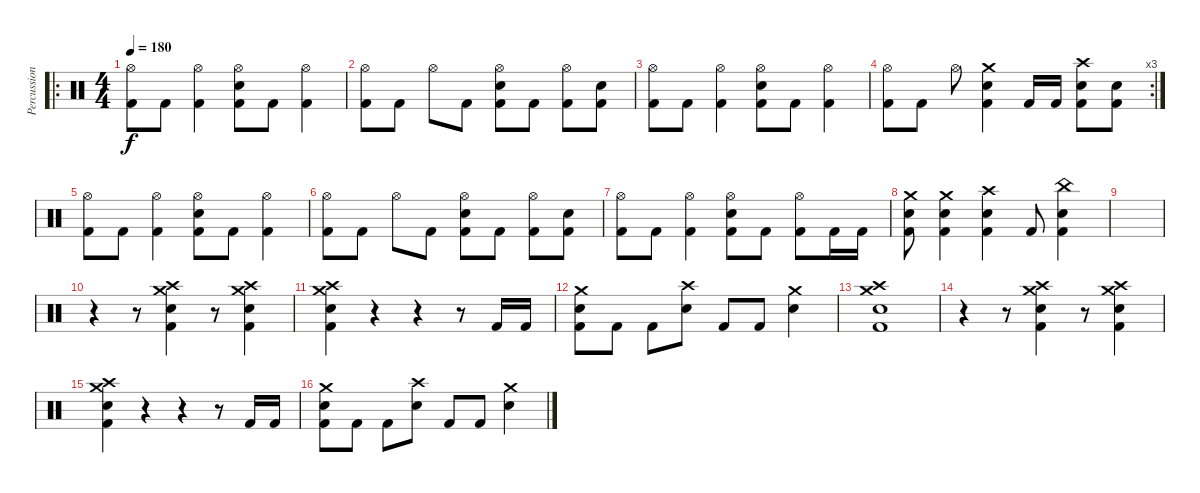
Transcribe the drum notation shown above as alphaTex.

\track ("Percussion" "Percussion") {instrument percussion}
\staff {score}
\articulation defaults
\ro
\ts (4 4)
\tempo 180
\clef neutral
\ks c
("Hi-Hat (open)" "Kick (hit) 2").8{dy f} "Kick (hit) 2".8 ("Hi-Hat (open)" "Kick (hit) 2").4 ("Hi-Hat (open)" "Electric Snare (hit)" "Kick (hit) 2").8 "Kick (hit) 2".8 ("Hi-Hat (open)" "Kick (hit) 2").4 |
("Hi-Hat (open)" "Kick (hit) 2").8 "Kick (hit) 2".8 "Hi-Hat (open)".8 "Kick (hit) 2".8 ("Hi-Hat (open)" "Electric Snare (hit)" "Kick (hit) 2").8 "Kick (hit) 2".8 ("Hi-Hat (open)" "Kick (hit) 2").8 ("Electric Snare (hit)" "Kick (hit) 2").8 |
("Hi-Hat (open)" "Kick (hit) 2").8 "Kick (hit) 2".8 ("Hi-Hat (open)" "Kick (hit) 2").4 ("Hi-Hat (open)" "Electric Snare (hit)" "Kick (hit) 2").8 "Kick (hit) 2".8 ("Hi-Hat (open)" "Kick (hit) 2").4 |
\rc 3
("Hi-Hat (open)" "Kick (hit) 2").8 "Kick (hit) 2".8 "Hi-Hat (open)".8 ("Crash medium (hit)" "Electric Snare (hit)" "Kick (hit) 2").4 "Kick (hit) 2".16 "Kick (hit) 2".16 ("Crash high (hit)" "Electric Snare (hit)" "Kick (hit) 2").8 ("Electric Snare (hit)" "Kick (hit) 2").8 |
("Hi-Hat (open)" "Kick (hit) 2").8 "Kick (hit) 2".8 ("Hi-Hat (open)" "Kick (hit) 2").4 ("Hi-Hat (open)" "Electric Snare (hit)" "Kick (hit) 2").8 "Kick (hit) 2".8 ("Hi-Hat (open)" "Kick (hit) 2").4 |
("Hi-Hat (open)" "Kick (hit) 2").8 "Kick (hit) 2".8 "Hi-Hat (open)".8 "Kick (hit) 2".8 ("Hi-Hat (open)" "Electric Snare (hit)" "Kick (hit) 2").8 "Kick (hit) 2".8 ("Hi-Hat (open)" "Kick (hit) 2").8 ("Electric Snare (hit)" "Kick (hit) 2").8 |
("Hi-Hat (open)" "Kick (hit) 2").8 "Kick (hit) 2".8 ("Hi-Hat (open)" "Kick (hit) 2").4 ("Hi-Hat (open)" "Electric Snare (hit)" "Kick (hit) 2").8 "Kick (hit) 2".8 ("Hi-Hat (open)" "Kick (hit) 2").8 "Kick (hit) 2".16 "Kick (hit) 2".16 |
("Crash medium (hit)" "Electric Snare (hit)" "Kick (hit) 2").8 ("Crash medium (hit)" "Electric Snare (hit)" "Kick (hit) 2").4 ("Crash high (hit)" "Electric Snare (hit)" "Kick (hit) 2").4 "Kick (hit) 2".8 ("China (hit)" "Electric Snare (hit)" "Kick (hit) 2").4 |
|
r.4 r.8 ("Crash medium (hit)" "Crash high (hit)" "Electric Snare (hit)" "Kick (hit) 2").4 r.8 ("Crash high (hit)" "Crash medium (hit)" "Electric Snare (hit)" "Kick (hit) 2").4 |
("Crash medium (hit)" "Crash high (hit)" "Electric Snare (hit)" "Kick (hit) 2").4 r.4 r.4 r.8 "Kick (hit) 2".16 "Kick (hit) 2".16 |
("Crash medium (hit)" "Electric Snare (hit)" "Kick (hit) 2").8 "Kick (hit) 2".8 "Kick (hit) 2".8 ("Crash high (hit)" "Electric Snare (hit)").8 "Kick (hit) 2".8 "Kick (hit) 2".8 ("Crash medium (hit)" "Electric Snare (hit)").4 |
("Crash medium (hit)" "Crash high (hit)" "Electric Snare (hit)" "Kick (hit) 2").1 |
r.4 r.8 ("Crash medium (hit)" "Crash high (hit)" "Electric Snare (hit)" "Kick (hit) 2").4 r.8 ("Crash high (hit)" "Crash medium (hit)" "Electric Snare (hit)" "Kick (hit) 2").4 |
("Crash medium (hit)" "Crash high (hit)" "Electric Snare (hit)" "Kick (hit) 2").4 r.4 r.4 r.8 "Kick (hit) 2".16 "Kick (hit) 2".16 |
("Crash medium (hit)" "Electric Snare (hit)" "Kick (hit) 2").8 "Kick (hit) 2".8 "Kick (hit) 2".8 ("Crash high (hit)" "Electric Snare (hit)").8 "Kick (hit) 2".8 "Kick (hit) 2".8 ("Crash medium (hit)" "Electric Snare (hit)").4
